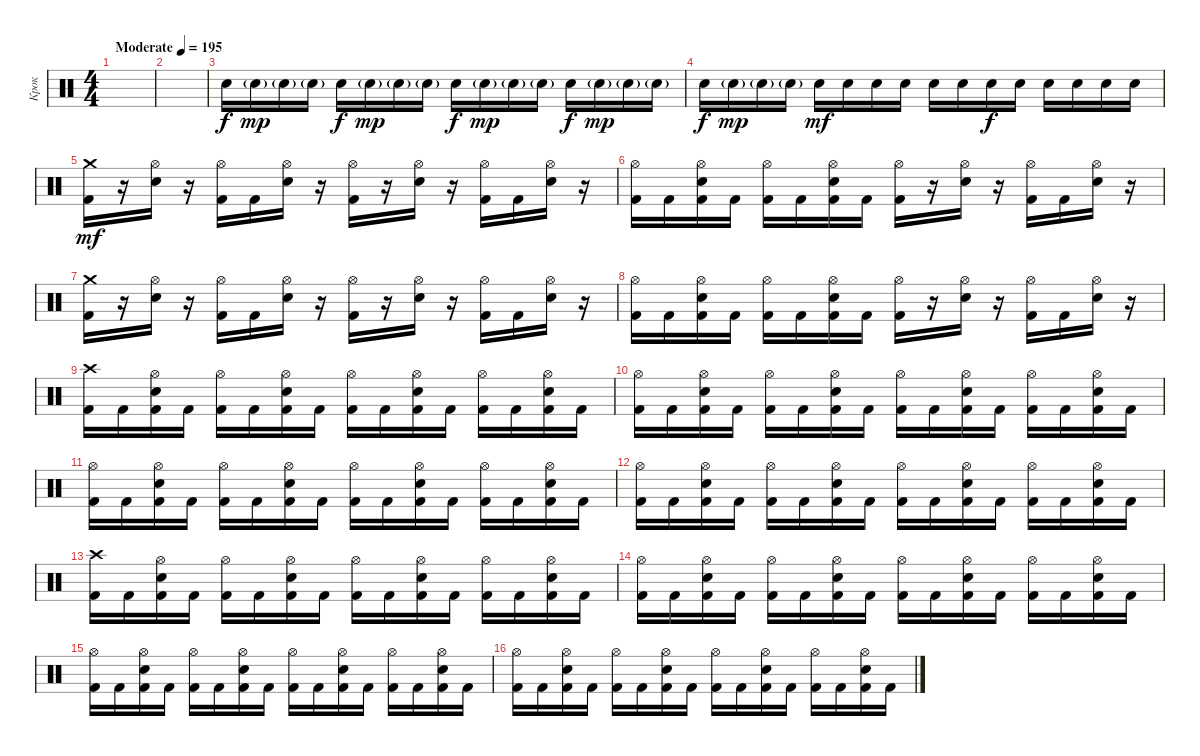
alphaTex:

\track ("Крок" "Крок") {instrument percussion}
\staff {score}
\articulation defaults
\ts (4 4)
\tempo (195 "Moderate")
\clef neutral
\ks c
|
|
"Electric Snare (hit)".16 "Electric Snare (hit)"{g}.16{dy mp} "Electric Snare (hit)"{g}.16 "Electric Snare (hit)"{g}.16 "Electric Snare (hit)".16{dy f} "Electric Snare (hit)"{g}.16{dy mp} "Electric Snare (hit)"{g}.16 "Electric Snare (hit)"{g}.16 "Electric Snare (hit)".16{dy f} "Electric Snare (hit)"{g}.16{dy mp} "Electric Snare (hit)"{g}.16 "Electric Snare (hit)"{g}.16 "Electric Snare (hit)".16{dy f} "Electric Snare (hit)"{g}.16{dy mp} "Electric Snare (hit)"{g}.16 "Electric Snare (hit)"{g}.16 |
"Electric Snare (hit)".16{dy f} "Electric Snare (hit)"{g}.16{dy mp} "Electric Snare (hit)"{g}.16 "Electric Snare (hit)"{g}.16 "Electric Snare (hit)".16{dy mf} "Electric Snare (hit)".16 "Electric Snare (hit)".16 "Electric Snare (hit)".16 "Electric Snare (hit)".16 "Electric Snare (hit)".16 "Electric Snare (hit)".16{dy f} "Electric Snare (hit)".16 "Electric Snare (hit)".16 "Electric Snare (hit)".16 "Electric Snare (hit)".16 "Electric Snare (hit)".16 |
("Kick (hit) 2" "Crash medium (hit)").16{dy mf} r.16 ("Electric Snare (hit)" "Hi-Hat (open)").16 r.16 ("Kick (hit) 2" "Hi-Hat (open)").16 "Kick (hit) 2".16 ("Electric Snare (hit)" "Hi-Hat (open)").16 r.16 ("Kick (hit) 2" "Hi-Hat (open)").16 r.16 ("Electric Snare (hit)" "Hi-Hat (open)").16 r.16 ("Kick (hit) 2" "Hi-Hat (open)").16 "Kick (hit) 2".16 ("Electric Snare (hit)" "Hi-Hat (open)").16 r.16 |
("Kick (hit) 2" "Hi-Hat (open)").16 "Kick (hit) 2".16 ("Electric Snare (hit)" "Kick (hit) 2" "Hi-Hat (open)").16 "Kick (hit) 2".16 ("Kick (hit) 2" "Hi-Hat (open)").16 "Kick (hit) 2".16 ("Electric Snare (hit)" "Kick (hit) 2" "Hi-Hat (open)").16 "Kick (hit) 2".16 ("Kick (hit) 2" "Hi-Hat (open)").16 r.16 ("Electric Snare (hit)" "Hi-Hat (open)").16 r.16 ("Kick (hit) 2" "Hi-Hat (open)").16 "Kick (hit) 2".16 ("Electric Snare (hit)" "Hi-Hat (open)").16 r.16 |
("Kick (hit) 2" "Crash medium (hit)").16 r.16 ("Electric Snare (hit)" "Hi-Hat (open)").16 r.16 ("Kick (hit) 2" "Hi-Hat (open)").16 "Kick (hit) 2".16 ("Electric Snare (hit)" "Hi-Hat (open)").16 r.16 ("Kick (hit) 2" "Hi-Hat (open)").16 r.16 ("Electric Snare (hit)" "Hi-Hat (open)").16 r.16 ("Kick (hit) 2" "Hi-Hat (open)").16 "Kick (hit) 2".16 ("Electric Snare (hit)" "Hi-Hat (open)").16 r.16 |
("Kick (hit) 2" "Hi-Hat (open)").16 "Kick (hit) 2".16 ("Electric Snare (hit)" "Kick (hit) 2" "Hi-Hat (open)").16 "Kick (hit) 2".16 ("Kick (hit) 2" "Hi-Hat (open)").16 "Kick (hit) 2".16 ("Electric Snare (hit)" "Kick (hit) 2" "Hi-Hat (open)").16 "Kick (hit) 2".16 ("Kick (hit) 2" "Hi-Hat (open)").16 r.16 ("Electric Snare (hit)" "Hi-Hat (open)").16 r.16 ("Kick (hit) 2" "Hi-Hat (open)").16 "Kick (hit) 2".16 ("Electric Snare (hit)" "Hi-Hat (open)").16 r.16 |
("Kick (hit) 2" "Crash high (hit)").16 "Kick (hit) 2".16 ("Electric Snare (hit)" "Kick (hit) 2" "Hi-Hat (open)").16 "Kick (hit) 2".16 ("Kick (hit) 2" "Hi-Hat (open)").16 "Kick (hit) 2".16 ("Electric Snare (hit)" "Kick (hit) 2" "Hi-Hat (open)").16 "Kick (hit) 2".16 ("Kick (hit) 2" "Hi-Hat (open)").16 "Kick (hit) 2".16 ("Electric Snare (hit)" "Kick (hit) 2" "Hi-Hat (open)").16 "Kick (hit) 2".16 ("Kick (hit) 2" "Hi-Hat (open)").16 "Kick (hit) 2".16 ("Electric Snare (hit)" "Kick (hit) 2" "Hi-Hat (open)").16 "Kick (hit) 2".16 |
("Kick (hit) 2" "Hi-Hat (open)").16 "Kick (hit) 2".16 ("Electric Snare (hit)" "Kick (hit) 2" "Hi-Hat (open)").16 "Kick (hit) 2".16 ("Kick (hit) 2" "Hi-Hat (open)").16 "Kick (hit) 2".16 ("Electric Snare (hit)" "Kick (hit) 2" "Hi-Hat (open)").16 "Kick (hit) 2".16 ("Kick (hit) 2" "Hi-Hat (open)").16 "Kick (hit) 2".16 ("Electric Snare (hit)" "Kick (hit) 2" "Hi-Hat (open)").16 "Kick (hit) 2".16 ("Kick (hit) 2" "Hi-Hat (open)").16 "Kick (hit) 2".16 ("Electric Snare (hit)" "Kick (hit) 2" "Hi-Hat (open)").16 "Kick (hit) 2".16 |
("Kick (hit) 2" "Hi-Hat (open)").16 "Kick (hit) 2".16 ("Electric Snare (hit)" "Kick (hit) 2" "Hi-Hat (open)").16 "Kick (hit) 2".16 ("Kick (hit) 2" "Hi-Hat (open)").16 "Kick (hit) 2".16 ("Electric Snare (hit)" "Kick (hit) 2" "Hi-Hat (open)").16 "Kick (hit) 2".16 ("Kick (hit) 2" "Hi-Hat (open)").16 "Kick (hit) 2".16 ("Electric Snare (hit)" "Kick (hit) 2" "Hi-Hat (open)").16 "Kick (hit) 2".16 ("Kick (hit) 2" "Hi-Hat (open)").16 "Kick (hit) 2".16 ("Electric Snare (hit)" "Kick (hit) 2" "Hi-Hat (open)").16 "Kick (hit) 2".16 |
("Kick (hit) 2" "Hi-Hat (open)").16 "Kick (hit) 2".16 ("Electric Snare (hit)" "Kick (hit) 2" "Hi-Hat (open)").16 "Kick (hit) 2".16 ("Kick (hit) 2" "Hi-Hat (open)").16 "Kick (hit) 2".16 ("Electric Snare (hit)" "Kick (hit) 2" "Hi-Hat (open)").16 "Kick (hit) 2".16 ("Kick (hit) 2" "Hi-Hat (open)").16 "Kick (hit) 2".16 ("Electric Snare (hit)" "Kick (hit) 2" "Hi-Hat (open)").16 "Kick (hit) 2".16 ("Kick (hit) 2" "Hi-Hat (open)").16 "Kick (hit) 2".16 ("Electric Snare (hit)" "Kick (hit) 2" "Hi-Hat (open)").16 "Kick (hit) 2".16 |
("Kick (hit) 2" "Crash high (hit)").16 "Kick (hit) 2".16 ("Electric Snare (hit)" "Kick (hit) 2" "Hi-Hat (open)").16 "Kick (hit) 2".16 ("Kick (hit) 2" "Hi-Hat (open)").16 "Kick (hit) 2".16 ("Electric Snare (hit)" "Kick (hit) 2" "Hi-Hat (open)").16 "Kick (hit) 2".16 ("Kick (hit) 2" "Hi-Hat (open)").16 "Kick (hit) 2".16 ("Electric Snare (hit)" "Kick (hit) 2" "Hi-Hat (open)").16 "Kick (hit) 2".16 ("Kick (hit) 2" "Hi-Hat (open)").16 "Kick (hit) 2".16 ("Electric Snare (hit)" "Kick (hit) 2" "Hi-Hat (open)").16 "Kick (hit) 2".16 |
("Kick (hit) 2" "Hi-Hat (open)").16 "Kick (hit) 2".16 ("Electric Snare (hit)" "Kick (hit) 2" "Hi-Hat (open)").16 "Kick (hit) 2".16 ("Kick (hit) 2" "Hi-Hat (open)").16 "Kick (hit) 2".16 ("Electric Snare (hit)" "Kick (hit) 2" "Hi-Hat (open)").16 "Kick (hit) 2".16 ("Kick (hit) 2" "Hi-Hat (open)").16 "Kick (hit) 2".16 ("Electric Snare (hit)" "Kick (hit) 2" "Hi-Hat (open)").16 "Kick (hit) 2".16 ("Kick (hit) 2" "Hi-Hat (open)").16 "Kick (hit) 2".16 ("Electric Snare (hit)" "Kick (hit) 2" "Hi-Hat (open)").16 "Kick (hit) 2".16 |
("Kick (hit) 2" "Hi-Hat (open)").16 "Kick (hit) 2".16 ("Electric Snare (hit)" "Kick (hit) 2" "Hi-Hat (open)").16 "Kick (hit) 2".16 ("Kick (hit) 2" "Hi-Hat (open)").16 "Kick (hit) 2".16 ("Electric Snare (hit)" "Kick (hit) 2" "Hi-Hat (open)").16 "Kick (hit) 2".16 ("Kick (hit) 2" "Hi-Hat (open)").16 "Kick (hit) 2".16 ("Electric Snare (hit)" "Kick (hit) 2" "Hi-Hat (open)").16 "Kick (hit) 2".16 ("Kick (hit) 2" "Hi-Hat (open)").16 "Kick (hit) 2".16 ("Electric Snare (hit)" "Kick (hit) 2" "Hi-Hat (open)").16 "Kick (hit) 2".16 |
("Kick (hit) 2" "Hi-Hat (open)").16 "Kick (hit) 2".16 ("Electric Snare (hit)" "Kick (hit) 2" "Hi-Hat (open)").16 "Kick (hit) 2".16 ("Kick (hit) 2" "Hi-Hat (open)").16 "Kick (hit) 2".16 ("Electric Snare (hit)" "Kick (hit) 2" "Hi-Hat (open)").16 "Kick (hit) 2".16 ("Kick (hit) 2" "Hi-Hat (open)").16 "Kick (hit) 2".16 ("Electric Snare (hit)" "Kick (hit) 2" "Hi-Hat (open)").16 "Kick (hit) 2".16 ("Kick (hit) 2" "Hi-Hat (open)").16 "Kick (hit) 2".16 ("Electric Snare (hit)" "Kick (hit) 2" "Hi-Hat (open)").16 "Kick (hit) 2".16
